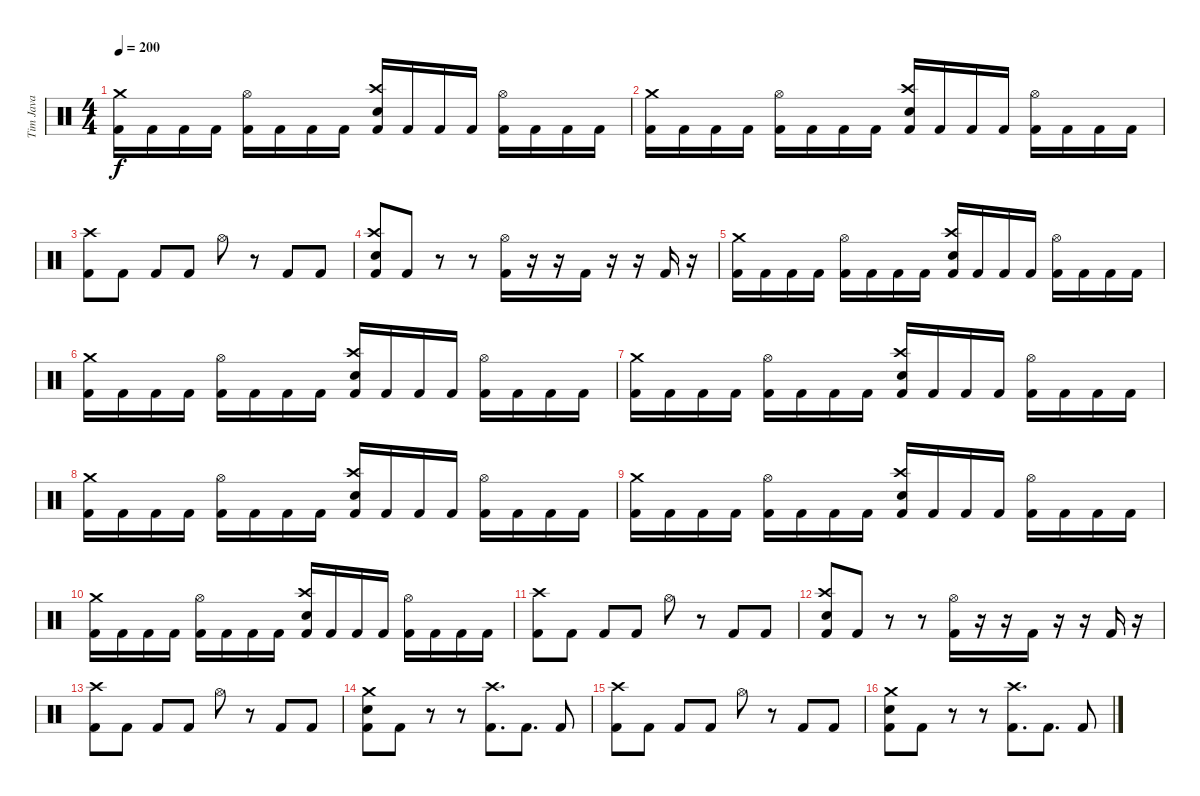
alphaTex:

\track ("Tim Java" "Tim Java") {instrument percussion}
\staff {score}
\articulation defaults
\ts (4 4)
\tempo 200
\clef neutral
\ks c
("Crash medium (hit)" "Kick (hit) 2").16{dy f} "Kick (hit) 2".16 "Kick (hit) 2".16 "Kick (hit) 2".16 ("Hi-Hat (open)" "Kick (hit) 2").16 "Kick (hit) 2".16 "Kick (hit) 2".16 "Kick (hit) 2".16 ("Crash high (hit)" "Electric Snare (hit)" "Kick (hit) 2").16 "Kick (hit) 2".16 "Kick (hit) 2".16 "Kick (hit) 2".16 ("Hi-Hat (open)" "Kick (hit) 2").16 "Kick (hit) 2".16 "Kick (hit) 2".16 "Kick (hit) 2".16 |
("Crash medium (hit)" "Kick (hit) 2").16 "Kick (hit) 2".16 "Kick (hit) 2".16 "Kick (hit) 2".16 ("Hi-Hat (open)" "Kick (hit) 2").16 "Kick (hit) 2".16 "Kick (hit) 2".16 "Kick (hit) 2".16 ("Crash high (hit)" "Electric Snare (hit)" "Kick (hit) 2").16 "Kick (hit) 2".16 "Kick (hit) 2".16 "Kick (hit) 2".16 ("Hi-Hat (open)" "Kick (hit) 2").16 "Kick (hit) 2".16 "Kick (hit) 2".16 "Kick (hit) 2".16 |
("Crash high (hit)" "Kick (hit) 2").8 "Kick (hit) 2".8 "Kick (hit) 2".8 "Kick (hit) 2".8 "Hi-Hat (open)".8 r.8 "Kick (hit) 2".8 "Kick (hit) 2".8 |
("Crash high (hit)" "Electric Snare (hit)" "Kick (hit) 2").8 "Kick (hit) 2".8 r.8 r.8 ("Hi-Hat (open)" "Kick (hit) 2").16 r.16 r.16 "Kick (hit) 2".16 r.16 r.16 "Kick (hit) 2".16 r.16 |
("Crash medium (hit)" "Kick (hit) 2").16 "Kick (hit) 2".16 "Kick (hit) 2".16 "Kick (hit) 2".16 ("Hi-Hat (open)" "Kick (hit) 2").16 "Kick (hit) 2".16 "Kick (hit) 2".16 "Kick (hit) 2".16 ("Crash high (hit)" "Electric Snare (hit)" "Kick (hit) 2").16 "Kick (hit) 2".16 "Kick (hit) 2".16 "Kick (hit) 2".16 ("Hi-Hat (open)" "Kick (hit) 2").16 "Kick (hit) 2".16 "Kick (hit) 2".16 "Kick (hit) 2".16 |
("Crash medium (hit)" "Kick (hit) 2").16 "Kick (hit) 2".16 "Kick (hit) 2".16 "Kick (hit) 2".16 ("Hi-Hat (open)" "Kick (hit) 2").16 "Kick (hit) 2".16 "Kick (hit) 2".16 "Kick (hit) 2".16 ("Crash high (hit)" "Electric Snare (hit)" "Kick (hit) 2").16 "Kick (hit) 2".16 "Kick (hit) 2".16 "Kick (hit) 2".16 ("Hi-Hat (open)" "Kick (hit) 2").16 "Kick (hit) 2".16 "Kick (hit) 2".16 "Kick (hit) 2".16 |
("Crash medium (hit)" "Kick (hit) 2").16 "Kick (hit) 2".16 "Kick (hit) 2".16 "Kick (hit) 2".16 ("Hi-Hat (open)" "Kick (hit) 2").16 "Kick (hit) 2".16 "Kick (hit) 2".16 "Kick (hit) 2".16 ("Crash high (hit)" "Electric Snare (hit)" "Kick (hit) 2").16 "Kick (hit) 2".16 "Kick (hit) 2".16 "Kick (hit) 2".16 ("Hi-Hat (open)" "Kick (hit) 2").16 "Kick (hit) 2".16 "Kick (hit) 2".16 "Kick (hit) 2".16 |
("Crash medium (hit)" "Kick (hit) 2").16 "Kick (hit) 2".16 "Kick (hit) 2".16 "Kick (hit) 2".16 ("Hi-Hat (open)" "Kick (hit) 2").16 "Kick (hit) 2".16 "Kick (hit) 2".16 "Kick (hit) 2".16 ("Crash high (hit)" "Electric Snare (hit)" "Kick (hit) 2").16 "Kick (hit) 2".16 "Kick (hit) 2".16 "Kick (hit) 2".16 ("Hi-Hat (open)" "Kick (hit) 2").16 "Kick (hit) 2".16 "Kick (hit) 2".16 "Kick (hit) 2".16 |
("Crash medium (hit)" "Kick (hit) 2").16 "Kick (hit) 2".16 "Kick (hit) 2".16 "Kick (hit) 2".16 ("Hi-Hat (open)" "Kick (hit) 2").16 "Kick (hit) 2".16 "Kick (hit) 2".16 "Kick (hit) 2".16 ("Crash high (hit)" "Electric Snare (hit)" "Kick (hit) 2").16 "Kick (hit) 2".16 "Kick (hit) 2".16 "Kick (hit) 2".16 ("Hi-Hat (open)" "Kick (hit) 2").16 "Kick (hit) 2".16 "Kick (hit) 2".16 "Kick (hit) 2".16 |
("Crash medium (hit)" "Kick (hit) 2").16 "Kick (hit) 2".16 "Kick (hit) 2".16 "Kick (hit) 2".16 ("Hi-Hat (open)" "Kick (hit) 2").16 "Kick (hit) 2".16 "Kick (hit) 2".16 "Kick (hit) 2".16 ("Crash high (hit)" "Electric Snare (hit)" "Kick (hit) 2").16 "Kick (hit) 2".16 "Kick (hit) 2".16 "Kick (hit) 2".16 ("Hi-Hat (open)" "Kick (hit) 2").16 "Kick (hit) 2".16 "Kick (hit) 2".16 "Kick (hit) 2".16 |
("Crash high (hit)" "Kick (hit) 2").8 "Kick (hit) 2".8 "Kick (hit) 2".8 "Kick (hit) 2".8 "Hi-Hat (open)".8 r.8 "Kick (hit) 2".8 "Kick (hit) 2".8 |
("Crash high (hit)" "Electric Snare (hit)" "Kick (hit) 2").8 "Kick (hit) 2".8 r.8 r.8 ("Hi-Hat (open)" "Kick (hit) 2").16 r.16 r.16 "Kick (hit) 2".16 r.16 r.16 "Kick (hit) 2".16 r.16 |
("Crash high (hit)" "Kick (hit) 2").8 "Kick (hit) 2".8 "Kick (hit) 2".8 "Kick (hit) 2".8 "Hi-Hat (open)".8 r.8 "Kick (hit) 2".8 "Kick (hit) 2".8 |
("Crash medium (hit)" "Electric Snare (hit)" "Kick (hit) 2").8 "Kick (hit) 2".8 r.8 r.8 ("Crash high (hit)" "Kick (hit) 2").8{d} "Kick (hit) 2".8{d} "Kick (hit) 2".8 |
("Crash high (hit)" "Kick (hit) 2").8 "Kick (hit) 2".8 "Kick (hit) 2".8 "Kick (hit) 2".8 "Hi-Hat (open)".8 r.8 "Kick (hit) 2".8 "Kick (hit) 2".8 |
("Crash medium (hit)" "Electric Snare (hit)" "Kick (hit) 2").8 "Kick (hit) 2".8 r.8 r.8 ("Crash high (hit)" "Kick (hit) 2").8{d} "Kick (hit) 2".8{d} "Kick (hit) 2".8
